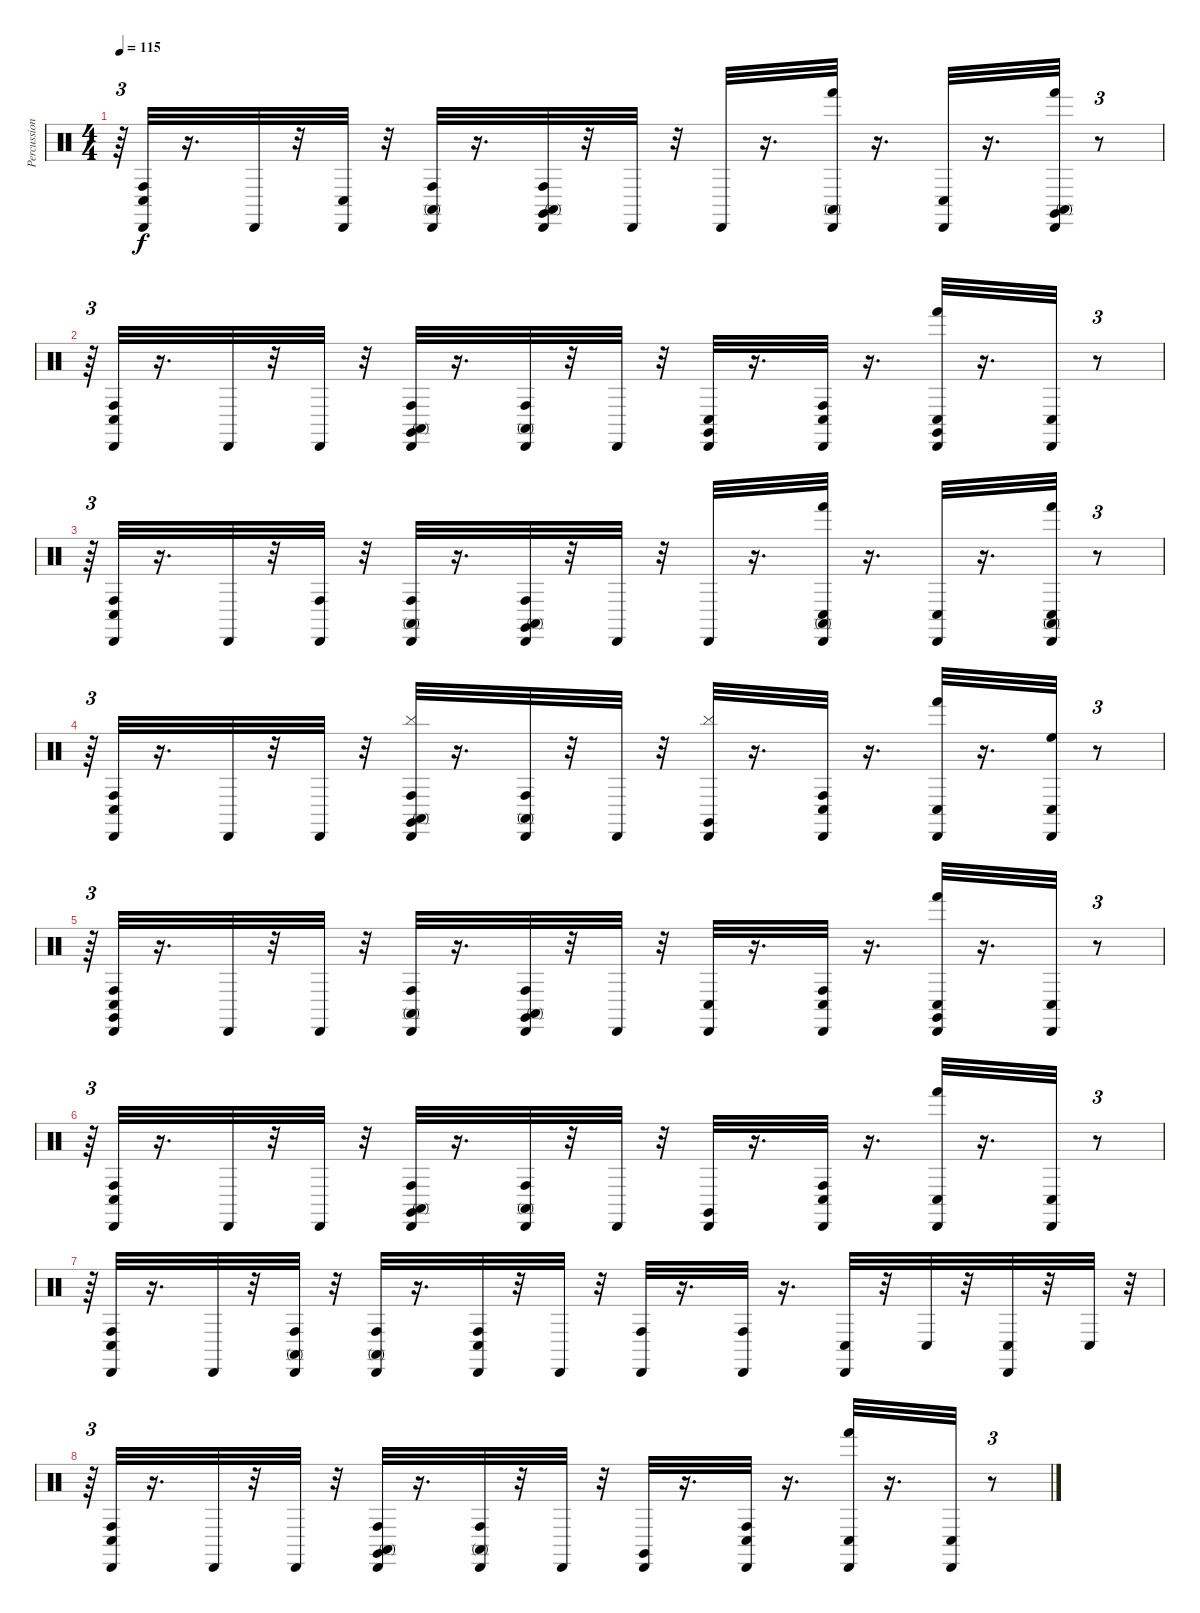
\track ("Percussion" "Percussion") {instrument percussion}
\staff {score}
\articulation defaults
\ts (4 4)
\tempo 115
\clef neutral
\ks c
r.64{tu (3 2) dy f} ("Conga low (hit)" "Conga high (hit)" "Cabasa (hit)").32 r.16{d} "Cabasa (hit)".32 r.32 ("Conga low (hit)" "Cabasa (hit)").32 r.32 ("Cabasa (hit)" "Conga high (mute)" "Conga high (hit)").32 r.16{d} ("Cabasa (hit)" "Claves (hit)" "Conga high (hit)" "Conga high (mute)").32 r.32 "Cabasa (hit)".32 r.32 "Cabasa (hit)".32 r.16{d} ("Cabasa (hit)" "Conga high (mute)" "Hand (hit)").32 r.16{d} ("Cabasa (hit)" "Conga low (hit)").32 r.16{d} ("Claves (hit)" "Conga high (mute)" "Hand (hit)" "Cabasa (hit)").32 r.8{tu (3 2)} |
r.64{tu (3 2)} ("Cabasa (hit)" "Conga high (hit)" "Conga low (hit)").32 r.16{d} "Cabasa (hit)".32 r.32 "Cabasa (hit)".32 r.32 ("Conga high (mute)" "Conga high (hit)" "Cabasa (hit)" "Claves (hit)").32 r.16{d} ("Conga high (hit)" "Conga high (mute)" "Cabasa (hit)").32 r.32 "Cabasa (hit)".32 r.32 ("Conga low (hit)" "Claves (hit)" "Cabasa (hit)").32 r.16{d} ("Conga low (hit)" "Conga high (hit)" "Cabasa (hit)").32 r.16{d} ("Cabasa (hit)" "Claves (hit)" "Hand (hit)" "Conga low (hit)").32 r.16{d} ("Conga low (hit)" "Cabasa (hit)").32 r.8{tu (3 2)} |
r.64{tu (3 2)} ("Conga low (hit)" "Cabasa (hit)" "Conga high (hit)").32 r.16{d} "Cabasa (hit)".32 r.32 ("Cabasa (hit)" "Conga high (hit)").32 r.32 ("Conga high (hit)" "Conga high (mute)" "Cabasa (hit)").32 r.16{d} ("Claves (hit)" "Conga high (mute)" "Conga high (hit)" "Cabasa (hit)").32 r.32 "Cabasa (hit)".32 r.32 "Cabasa (hit)".32 r.16{d} ("Cabasa (hit)" "Hand (hit)" "Conga high (mute)" "Conga low (hit)").32 r.16{d} ("Conga low (hit)" "Cabasa (hit)").32 r.16{d} ("Cabasa (hit)" "Hand (hit)" "Conga high (mute)" "Conga low (hit)").32 r.8{tu (3 2)} |
r.64{tu (3 2)} ("Conga low (hit)" "Conga high (hit)" "Cabasa (hit)").32 r.16{d} "Cabasa (hit)".32 r.32 "Cabasa (hit)".32 r.32 ("Claves (hit)" "Conga high (mute)" "Conga high (hit)" "Cabasa (hit)" "Cymbal (hit)").32 r.16{d} ("Conga high (mute)" "Conga high (hit)" "Cabasa (hit)").32 r.32 "Cabasa (hit)".32 r.32 ("Cabasa (hit)" "Cymbal (hit)" "Claves (hit)").32 r.16{d} ("Conga low (hit)" "Conga high (hit)" "Cabasa (hit)").32 r.16{d} ("Cabasa (hit)" "Conga low (hit)" "Hand (hit)").32 r.16{d} ("High Floor Tom (hit)" "Cabasa (hit)" "Conga low (hit)").32 r.8{tu (3 2)} |
r.64{tu (3 2)} ("Conga low (hit)" "Conga high (hit)" "Claves (hit)" "Cabasa (hit)").32 r.16{d} "Cabasa (hit)".32 r.32 "Cabasa (hit)".32 r.32 ("Conga high (mute)" "Cabasa (hit)" "Conga high (hit)").32 r.16{d} ("Conga high (hit)" "Claves (hit)" "Conga high (mute)" "Cabasa (hit)").32 r.32 "Cabasa (hit)".32 r.32 ("Cabasa (hit)" "Conga low (hit)").32 r.16{d} ("Conga high (hit)" "Cabasa (hit)" "Conga low (hit)").32 r.16{d} ("Conga low (hit)" "Cabasa (hit)" "Claves (hit)" "Hand (hit)").32 r.16{d} ("Conga low (hit)" "Cabasa (hit)").32 r.8{tu (3 2)} |
r.64{tu (3 2)} ("Conga high (hit)" "Cabasa (hit)" "Conga low (hit)").32 r.16{d} "Cabasa (hit)".32 r.32 "Cabasa (hit)".32 r.32 ("Conga high (hit)" "Conga high (mute)" "Claves (hit)" "Cabasa (hit)").32 r.16{d} ("Conga high (mute)" "Conga high (hit)" "Cabasa (hit)").32 r.32 "Cabasa (hit)".32 r.32 ("Claves (hit)" "Cabasa (hit)").32 r.16{d} ("Conga low (hit)" "Cabasa (hit)" "Conga high (hit)").32 r.16{d} ("Conga low (hit)" "Hand (hit)" "Cabasa (hit)").32 r.16{d} ("Conga low (hit)" "Cabasa (hit)").32 r.8{tu (3 2)} |
r.64{tu (3 2)} ("Cabasa (hit)" "Conga high (hit)" "Conga low (hit)").32 r.16{d} "Cabasa (hit)".32 r.32 ("Conga high (hit)" "Cabasa (hit)" "Conga high (mute)").32 r.32 ("Conga high (hit)" "Conga high (mute)" "Cabasa (hit)").32 r.16{d} ("Cabasa (hit)" "Conga high (hit)" "Conga low (hit)").32 r.32 "Cabasa (hit)".32 r.32 ("Cabasa (hit)" "Conga high (hit)").32 r.16{d} ("Cabasa (hit)" "Conga high (hit)").32 r.16{d} ("Cabasa (hit)" "Conga low (hit)").32 r.32 "Conga low (hit)".32 r.32 ("Cabasa (hit)" "Conga low (hit)").32 r.32 "Conga low (hit)".32 r.32{tu (3 2)} |
r.64{tu (3 2)} ("Cabasa (hit)" "Conga high (hit)" "Conga low (hit)").32 r.16{d} "Cabasa (hit)".32 r.32 "Cabasa (hit)".32 r.32 ("Cabasa (hit)" "Conga high (mute)" "Conga high (hit)" "Claves (hit)").32 r.16{d} ("Cabasa (hit)" "Conga high (hit)" "Conga high (mute)").32 r.32 "Cabasa (hit)".32 r.32 ("Cabasa (hit)" "Claves (hit)").32 r.16{d} ("Cabasa (hit)" "Conga low (hit)" "Conga high (hit)").32 r.16{d} ("Hand (hit)" "Conga low (hit)" "Cabasa (hit)").32 r.16{d} ("Conga low (hit)" "Cabasa (hit)").32 r.8{tu (3 2)}
